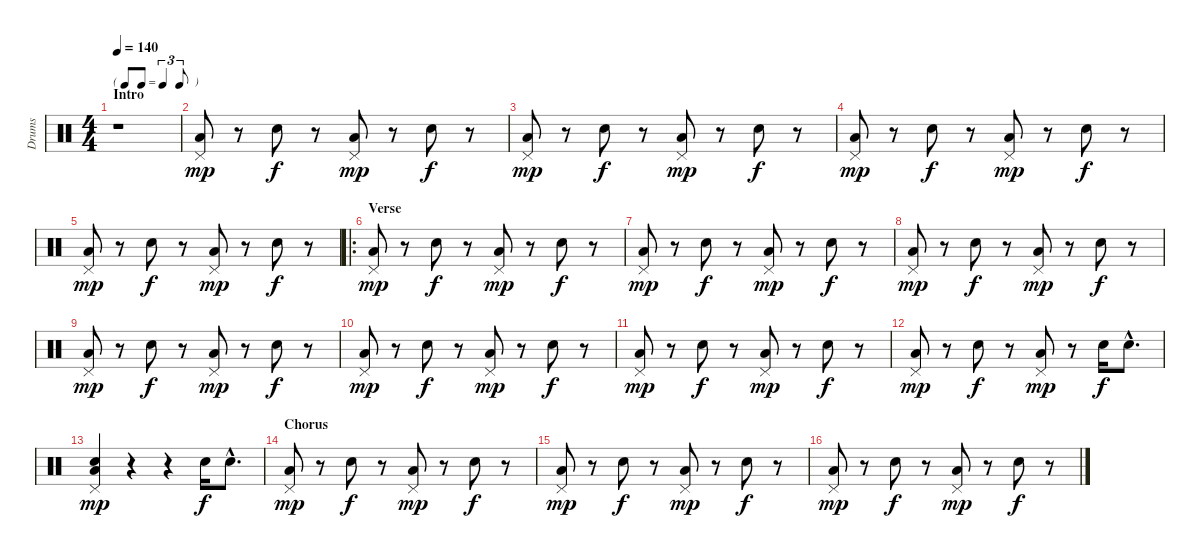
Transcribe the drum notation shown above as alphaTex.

\track ("Drums" "Drums") {instrument percussion}
\staff {score}
\articulation defaults
\ts (4 4)
\tf triplet8th
\section ("" "Intro")
\tempo 140
\clef neutral
\ks c
r.1{dy mp} |
("Pedal Hi-Hat (hit)" "Low Floor Tom (hit)").8 r.8 "Snare (hit) 2".8{dy f} r.8 ("Pedal Hi-Hat (hit)" "Low Floor Tom (hit)").8{dy mp} r.8 "Snare (hit) 2".8{dy f} r.8 |
("Pedal Hi-Hat (hit)" "Low Floor Tom (hit)").8{dy mp} r.8 "Snare (hit) 2".8{dy f} r.8 ("Pedal Hi-Hat (hit)" "Low Floor Tom (hit)").8{dy mp} r.8 "Snare (hit) 2".8{dy f} r.8 |
("Pedal Hi-Hat (hit)" "Low Floor Tom (hit)").8{dy mp} r.8 "Snare (hit) 2".8{dy f} r.8 ("Pedal Hi-Hat (hit)" "Low Floor Tom (hit)").8{dy mp} r.8 "Snare (hit) 2".8{dy f} r.8 |
("Pedal Hi-Hat (hit)" "Low Floor Tom (hit)").8{dy mp} r.8 "Snare (hit) 2".8{dy f} r.8 ("Pedal Hi-Hat (hit)" "Low Floor Tom (hit)").8{dy mp} r.8 "Snare (hit) 2".8{dy f} r.8 |
\ro
\section ("" "Verse")
("Pedal Hi-Hat (hit)" "Low Floor Tom (hit)").8{dy mp} r.8 "Snare (hit) 2".8{dy f} r.8 ("Pedal Hi-Hat (hit)" "Low Floor Tom (hit)").8{dy mp} r.8 "Snare (hit) 2".8{dy f} r.8 |
("Pedal Hi-Hat (hit)" "Low Floor Tom (hit)").8{dy mp} r.8 "Snare (hit) 2".8{dy f} r.8 ("Pedal Hi-Hat (hit)" "Low Floor Tom (hit)").8{dy mp} r.8 "Snare (hit) 2".8{dy f} r.8 |
("Pedal Hi-Hat (hit)" "Low Floor Tom (hit)").8{dy mp} r.8 "Snare (hit) 2".8{dy f} r.8 ("Pedal Hi-Hat (hit)" "Low Floor Tom (hit)").8{dy mp} r.8 "Snare (hit) 2".8{dy f} r.8 |
("Pedal Hi-Hat (hit)" "Low Floor Tom (hit)").8{dy mp} r.8 "Snare (hit) 2".8{dy f} r.8 ("Pedal Hi-Hat (hit)" "Low Floor Tom (hit)").8{dy mp} r.8 "Snare (hit) 2".8{dy f} r.8 |
("Pedal Hi-Hat (hit)" "Low Floor Tom (hit)").8{dy mp} r.8 "Snare (hit) 2".8{dy f} r.8 ("Pedal Hi-Hat (hit)" "Low Floor Tom (hit)").8{dy mp} r.8 "Snare (hit) 2".8{dy f} r.8 |
("Pedal Hi-Hat (hit)" "Low Floor Tom (hit)").8{dy mp} r.8 "Snare (hit) 2".8{dy f} r.8 ("Pedal Hi-Hat (hit)" "Low Floor Tom (hit)").8{dy mp} r.8 "Snare (hit) 2".8{dy f} r.8 |
("Pedal Hi-Hat (hit)" "Low Floor Tom (hit)").8{dy mp} r.8 "Snare (hit) 2".8{dy f} r.8 ("Pedal Hi-Hat (hit)" "Low Floor Tom (hit)").8{dy mp} r.8 "Snare (hit) 2".16{dy f} "Snare (hit) 2"{hac}.8{d} |
("Pedal Hi-Hat (hit)" "Snare (hit) 2" "Low Floor Tom (hit)").4{dy mp} r.4 r.4 "Snare (hit) 2".16{dy f} "Snare (hit) 2"{hac}.8{d} |
\section ("" "Chorus")
("Pedal Hi-Hat (hit)" "Low Floor Tom (hit)").8{dy mp} r.8 "Snare (hit) 2".8{dy f} r.8 ("Pedal Hi-Hat (hit)" "Low Floor Tom (hit)").8{dy mp} r.8 "Snare (hit) 2".8{dy f} r.8 |
("Pedal Hi-Hat (hit)" "Low Floor Tom (hit)").8{dy mp} r.8 "Snare (hit) 2".8{dy f} r.8 ("Pedal Hi-Hat (hit)" "Low Floor Tom (hit)").8{dy mp} r.8 "Snare (hit) 2".8{dy f} r.8 |
("Pedal Hi-Hat (hit)" "Low Floor Tom (hit)").8{dy mp} r.8 "Snare (hit) 2".8{dy f} r.8 ("Pedal Hi-Hat (hit)" "Low Floor Tom (hit)").8{dy mp} r.8 "Snare (hit) 2".8{dy f} r.8
